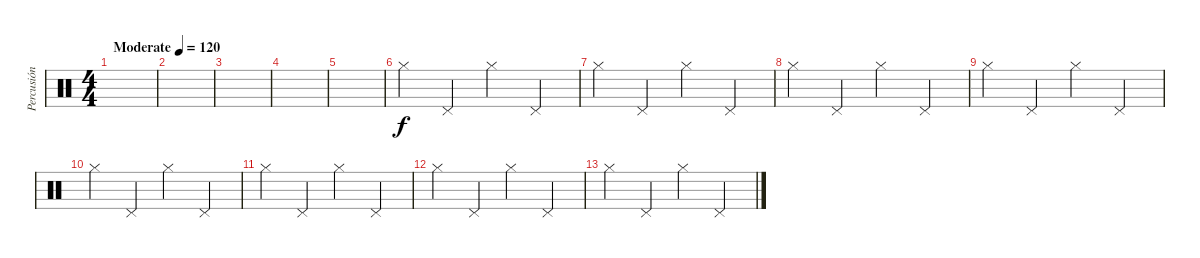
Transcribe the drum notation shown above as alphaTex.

\track ("Percusión" "Percusión") {instrument percussion}
\staff {score}
\articulation defaults
\ts (4 4)
\tempo (120 "Moderate")
\clef neutral
\ks c
|
|
|
|
|
"Hi-Hat (closed)".4 "Pedal Hi-Hat (hit)".4 "Hi-Hat (closed)".4 "Pedal Hi-Hat (hit)".4 |
"Hi-Hat (closed)".4 "Pedal Hi-Hat (hit)".4 "Hi-Hat (closed)".4 "Pedal Hi-Hat (hit)".4 |
"Hi-Hat (closed)".4 "Pedal Hi-Hat (hit)".4 "Hi-Hat (closed)".4 "Pedal Hi-Hat (hit)".4 |
"Hi-Hat (closed)".4 "Pedal Hi-Hat (hit)".4 "Hi-Hat (closed)".4 "Pedal Hi-Hat (hit)".4 |
"Hi-Hat (closed)".4 "Pedal Hi-Hat (hit)".4 "Hi-Hat (closed)".4 "Pedal Hi-Hat (hit)".4 |
"Hi-Hat (closed)".4 "Pedal Hi-Hat (hit)".4 "Hi-Hat (closed)".4 "Pedal Hi-Hat (hit)".4 |
"Hi-Hat (closed)".4 "Pedal Hi-Hat (hit)".4 "Hi-Hat (closed)".4 "Pedal Hi-Hat (hit)".4 |
"Hi-Hat (closed)".4 "Pedal Hi-Hat (hit)".4 "Hi-Hat (closed)".4 "Pedal Hi-Hat (hit)".4
